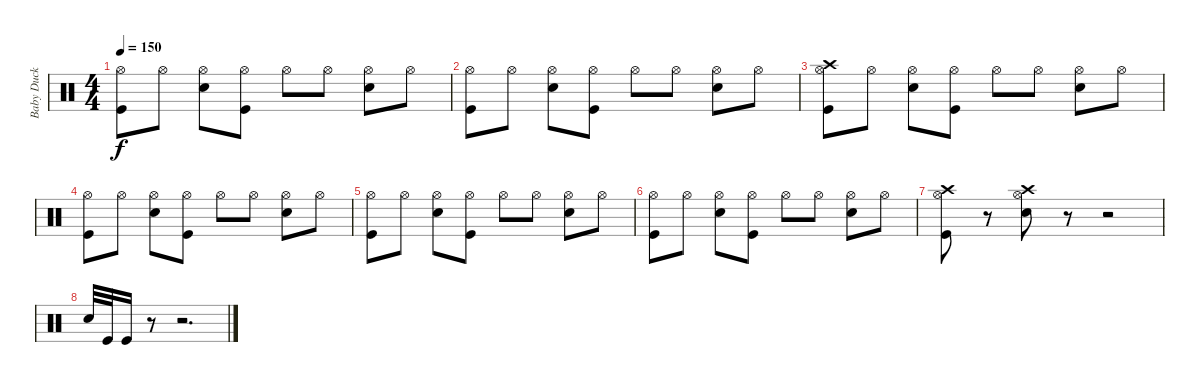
\track ("Baby Duck" "Baby Duck") {instrument percussion}
\staff {score}
\articulation defaults
\ts (4 4)
\tempo 150
\clef neutral
\ks c
("Kick (hit)" "Hi-Hat (open)").8{dy f} "Hi-Hat (open)".8 ("Electric Snare (hit)" "Hi-Hat (open)").8 ("Kick (hit)" "Hi-Hat (open)").8 "Hi-Hat (open)".8 "Hi-Hat (open)".8 ("Electric Snare (hit)" "Hi-Hat (open)").8 "Hi-Hat (open)".8 |
("Kick (hit)" "Hi-Hat (open)").8 "Hi-Hat (open)".8 ("Electric Snare (hit)" "Hi-Hat (open)").8 ("Kick (hit)" "Hi-Hat (open)").8 "Hi-Hat (open)".8 "Hi-Hat (open)".8 ("Electric Snare (hit)" "Hi-Hat (open)").8 "Hi-Hat (open)".8 |
\section ("" "")
("Kick (hit)" "Hi-Hat (open)" "Crash high (hit)").8 "Hi-Hat (open)".8 ("Electric Snare (hit)" "Hi-Hat (open)").8 ("Kick (hit)" "Hi-Hat (open)").8 "Hi-Hat (open)".8 "Hi-Hat (open)".8 ("Electric Snare (hit)" "Hi-Hat (open)").8 "Hi-Hat (open)".8 |
("Kick (hit)" "Hi-Hat (open)").8 "Hi-Hat (open)".8 ("Electric Snare (hit)" "Hi-Hat (open)").8 ("Kick (hit)" "Hi-Hat (open)").8 "Hi-Hat (open)".8 "Hi-Hat (open)".8 ("Electric Snare (hit)" "Hi-Hat (open)").8 "Hi-Hat (open)".8 |
("Kick (hit)" "Hi-Hat (open)").8 "Hi-Hat (open)".8 ("Electric Snare (hit)" "Hi-Hat (open)").8 ("Kick (hit)" "Hi-Hat (open)").8 "Hi-Hat (open)".8 "Hi-Hat (open)".8 ("Electric Snare (hit)" "Hi-Hat (open)").8 "Hi-Hat (open)".8 |
("Kick (hit)" "Hi-Hat (open)").8 "Hi-Hat (open)".8 ("Electric Snare (hit)" "Hi-Hat (open)").8 ("Kick (hit)" "Hi-Hat (open)").8 "Hi-Hat (open)".8 "Hi-Hat (open)".8 ("Electric Snare (hit)" "Hi-Hat (open)").8 "Hi-Hat (open)".8 |
\section ("" "")
("Kick (hit)" "Hi-Hat (open)" "Crash high (hit)").8 r.8 ("Electric Snare (hit)" "Hi-Hat (open)" "Crash high (hit)").8 r.8 r.2 |
"Electric Snare (hit)".32 "Kick (hit)".32 "Kick (hit)".16 r.8 r.2{d}
